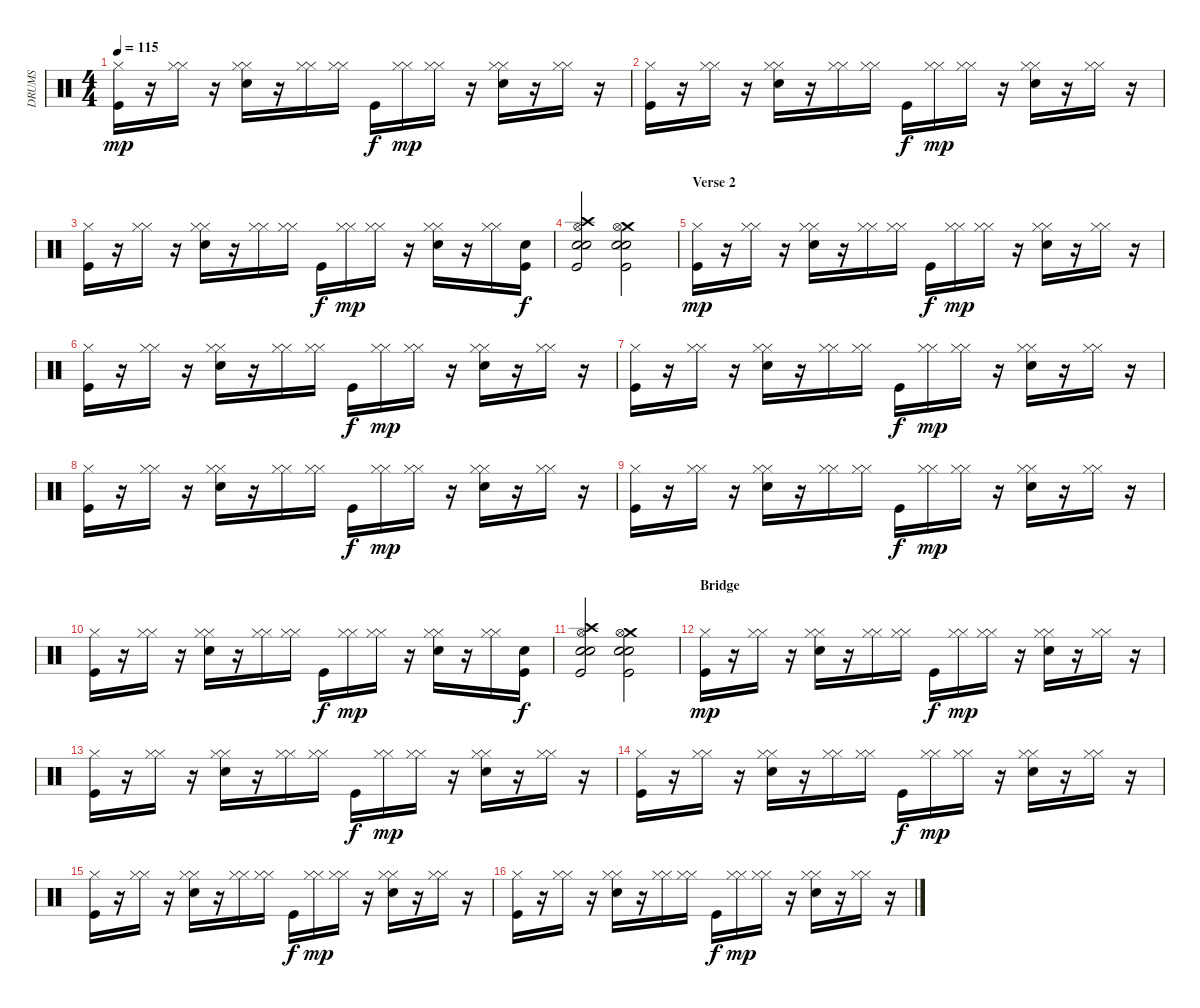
\track ("DRUMS" "DRUMS") {instrument percussion}
\staff {score}
\articulation defaults
\ts (4 4)
\tempo 115
\clef neutral
\ks c
("Kick (hit)" "Hi-Hat (closed)").16{dy mp} r.16 ("Hi-Hat (closed)" "Hi-Hat (closed)").16 r.16 ("Hi-Hat (closed)" "Snare (hit) 2" "Hi-Hat (closed)").16 r.16 ("Hi-Hat (closed)" "Hi-Hat (closed)").16 ("Hi-Hat (closed)" "Hi-Hat (closed)").16 "Kick (hit)".16{dy f} ("Hi-Hat (closed)" "Hi-Hat (closed)").16{dy mp} ("Hi-Hat (closed)" "Hi-Hat (closed)").16 r.16 ("Hi-Hat (closed)" "Snare (hit) 2" "Hi-Hat (closed)").16 r.16 ("Hi-Hat (closed)" "Hi-Hat (closed)").16 r.16 |
("Kick (hit)" "Hi-Hat (closed)").16 r.16 ("Hi-Hat (closed)" "Hi-Hat (closed)").16 r.16 ("Hi-Hat (closed)" "Snare (hit) 2" "Hi-Hat (closed)").16 r.16 ("Hi-Hat (closed)" "Hi-Hat (closed)").16 ("Hi-Hat (closed)" "Hi-Hat (closed)").16 "Kick (hit)".16{dy f} ("Hi-Hat (closed)" "Hi-Hat (closed)").16{dy mp} ("Hi-Hat (closed)" "Hi-Hat (closed)").16 r.16 ("Hi-Hat (closed)" "Snare (hit) 2" "Hi-Hat (closed)").16 r.16 ("Hi-Hat (closed)" "Hi-Hat (closed)").16 r.16 |
("Kick (hit)" "Hi-Hat (closed)").16 r.16 ("Hi-Hat (closed)" "Hi-Hat (closed)").16 r.16 ("Hi-Hat (closed)" "Snare (hit) 2" "Hi-Hat (closed)").16 r.16 ("Hi-Hat (closed)" "Hi-Hat (closed)").16 ("Hi-Hat (closed)" "Hi-Hat (closed)").16 "Kick (hit)".16{dy f} ("Hi-Hat (closed)" "Hi-Hat (closed)").16{dy mp} ("Hi-Hat (closed)" "Hi-Hat (closed)").16 r.16 ("Hi-Hat (closed)" "Snare (hit) 2" "Hi-Hat (closed)").16 r.16 ("Hi-Hat (closed)" "Hi-Hat (closed)").16 ("Snare (hit) 2" "Kick (hit)").16{dy f} |
("Crash high (hit)" "Hi-Hat (open)" "Snare (hit) 2" "Kick (hit)" "Electric Snare (hit)").2 ("Crash medium (hit)" "Hi-Hat (open)" "Snare (hit) 2" "Kick (hit)" "Electric Snare (hit)").2 |
\section ("" "Verse 2")
("Kick (hit)" "Hi-Hat (closed)").16{dy mp} r.16 ("Hi-Hat (closed)" "Hi-Hat (closed)").16 r.16 ("Hi-Hat (closed)" "Snare (hit) 2" "Hi-Hat (closed)").16 r.16 ("Hi-Hat (closed)" "Hi-Hat (closed)").16 ("Hi-Hat (closed)" "Hi-Hat (closed)").16 "Kick (hit)".16{dy f} ("Hi-Hat (closed)" "Hi-Hat (closed)").16{dy mp} ("Hi-Hat (closed)" "Hi-Hat (closed)").16 r.16 ("Hi-Hat (closed)" "Snare (hit) 2" "Hi-Hat (closed)").16 r.16 ("Hi-Hat (closed)" "Hi-Hat (closed)").16 r.16 |
("Kick (hit)" "Hi-Hat (closed)").16 r.16 ("Hi-Hat (closed)" "Hi-Hat (closed)").16 r.16 ("Hi-Hat (closed)" "Snare (hit) 2" "Hi-Hat (closed)").16 r.16 ("Hi-Hat (closed)" "Hi-Hat (closed)").16 ("Hi-Hat (closed)" "Hi-Hat (closed)").16 "Kick (hit)".16{dy f} ("Hi-Hat (closed)" "Hi-Hat (closed)").16{dy mp} ("Hi-Hat (closed)" "Hi-Hat (closed)").16 r.16 ("Hi-Hat (closed)" "Snare (hit) 2" "Hi-Hat (closed)").16 r.16 ("Hi-Hat (closed)" "Hi-Hat (closed)").16 r.16 |
("Kick (hit)" "Hi-Hat (closed)").16 r.16 ("Hi-Hat (closed)" "Hi-Hat (closed)").16 r.16 ("Hi-Hat (closed)" "Snare (hit) 2" "Hi-Hat (closed)").16 r.16 ("Hi-Hat (closed)" "Hi-Hat (closed)").16 ("Hi-Hat (closed)" "Hi-Hat (closed)").16 "Kick (hit)".16{dy f} ("Hi-Hat (closed)" "Hi-Hat (closed)").16{dy mp} ("Hi-Hat (closed)" "Hi-Hat (closed)").16 r.16 ("Hi-Hat (closed)" "Snare (hit) 2" "Hi-Hat (closed)").16 r.16 ("Hi-Hat (closed)" "Hi-Hat (closed)").16 r.16 |
("Kick (hit)" "Hi-Hat (closed)").16 r.16 ("Hi-Hat (closed)" "Hi-Hat (closed)").16 r.16 ("Hi-Hat (closed)" "Snare (hit) 2" "Hi-Hat (closed)").16 r.16 ("Hi-Hat (closed)" "Hi-Hat (closed)").16 ("Hi-Hat (closed)" "Hi-Hat (closed)").16 "Kick (hit)".16{dy f} ("Hi-Hat (closed)" "Hi-Hat (closed)").16{dy mp} ("Hi-Hat (closed)" "Hi-Hat (closed)").16 r.16 ("Hi-Hat (closed)" "Snare (hit) 2" "Hi-Hat (closed)").16 r.16 ("Hi-Hat (closed)" "Hi-Hat (closed)").16 r.16 |
("Kick (hit)" "Hi-Hat (closed)").16 r.16 ("Hi-Hat (closed)" "Hi-Hat (closed)").16 r.16 ("Hi-Hat (closed)" "Snare (hit) 2" "Hi-Hat (closed)").16 r.16 ("Hi-Hat (closed)" "Hi-Hat (closed)").16 ("Hi-Hat (closed)" "Hi-Hat (closed)").16 "Kick (hit)".16{dy f} ("Hi-Hat (closed)" "Hi-Hat (closed)").16{dy mp} ("Hi-Hat (closed)" "Hi-Hat (closed)").16 r.16 ("Hi-Hat (closed)" "Snare (hit) 2" "Hi-Hat (closed)").16 r.16 ("Hi-Hat (closed)" "Hi-Hat (closed)").16 r.16 |
("Kick (hit)" "Hi-Hat (closed)").16 r.16 ("Hi-Hat (closed)" "Hi-Hat (closed)").16 r.16 ("Hi-Hat (closed)" "Snare (hit) 2" "Hi-Hat (closed)").16 r.16 ("Hi-Hat (closed)" "Hi-Hat (closed)").16 ("Hi-Hat (closed)" "Hi-Hat (closed)").16 "Kick (hit)".16{dy f} ("Hi-Hat (closed)" "Hi-Hat (closed)").16{dy mp} ("Hi-Hat (closed)" "Hi-Hat (closed)").16 r.16 ("Hi-Hat (closed)" "Snare (hit) 2" "Hi-Hat (closed)").16 r.16 ("Hi-Hat (closed)" "Hi-Hat (closed)").16 ("Snare (hit) 2" "Kick (hit)").16{dy f} |
("Crash high (hit)" "Hi-Hat (open)" "Snare (hit) 2" "Kick (hit)" "Electric Snare (hit)").2 ("Crash medium (hit)" "Hi-Hat (open)" "Snare (hit) 2" "Kick (hit)" "Electric Snare (hit)").2 |
\section ("" "Bridge")
("Kick (hit)" "Hi-Hat (closed)").16{dy mp} r.16 ("Hi-Hat (closed)" "Hi-Hat (closed)").16 r.16 ("Hi-Hat (closed)" "Snare (hit) 2" "Hi-Hat (closed)").16 r.16 ("Hi-Hat (closed)" "Hi-Hat (closed)").16 ("Hi-Hat (closed)" "Hi-Hat (closed)").16 "Kick (hit)".16{dy f} ("Hi-Hat (closed)" "Hi-Hat (closed)").16{dy mp} ("Hi-Hat (closed)" "Hi-Hat (closed)").16 r.16 ("Hi-Hat (closed)" "Snare (hit) 2" "Hi-Hat (closed)").16 r.16 ("Hi-Hat (closed)" "Hi-Hat (closed)").16 r.16 |
("Kick (hit)" "Hi-Hat (closed)").16 r.16 ("Hi-Hat (closed)" "Hi-Hat (closed)").16 r.16 ("Hi-Hat (closed)" "Snare (hit) 2" "Hi-Hat (closed)").16 r.16 ("Hi-Hat (closed)" "Hi-Hat (closed)").16 ("Hi-Hat (closed)" "Hi-Hat (closed)").16 "Kick (hit)".16{dy f} ("Hi-Hat (closed)" "Hi-Hat (closed)").16{dy mp} ("Hi-Hat (closed)" "Hi-Hat (closed)").16 r.16 ("Hi-Hat (closed)" "Snare (hit) 2" "Hi-Hat (closed)").16 r.16 ("Hi-Hat (closed)" "Hi-Hat (closed)").16 r.16 |
("Kick (hit)" "Hi-Hat (closed)").16 r.16 ("Hi-Hat (closed)" "Hi-Hat (closed)").16 r.16 ("Hi-Hat (closed)" "Snare (hit) 2" "Hi-Hat (closed)").16 r.16 ("Hi-Hat (closed)" "Hi-Hat (closed)").16 ("Hi-Hat (closed)" "Hi-Hat (closed)").16 "Kick (hit)".16{dy f} ("Hi-Hat (closed)" "Hi-Hat (closed)").16{dy mp} ("Hi-Hat (closed)" "Hi-Hat (closed)").16 r.16 ("Hi-Hat (closed)" "Snare (hit) 2" "Hi-Hat (closed)").16 r.16 ("Hi-Hat (closed)" "Hi-Hat (closed)").16 r.16 |
("Kick (hit)" "Hi-Hat (closed)").16 r.16 ("Hi-Hat (closed)" "Hi-Hat (closed)").16 r.16 ("Hi-Hat (closed)" "Snare (hit) 2" "Hi-Hat (closed)").16 r.16 ("Hi-Hat (closed)" "Hi-Hat (closed)").16 ("Hi-Hat (closed)" "Hi-Hat (closed)").16 "Kick (hit)".16{dy f} ("Hi-Hat (closed)" "Hi-Hat (closed)").16{dy mp} ("Hi-Hat (closed)" "Hi-Hat (closed)").16 r.16 ("Hi-Hat (closed)" "Snare (hit) 2" "Hi-Hat (closed)").16 r.16 ("Hi-Hat (closed)" "Hi-Hat (closed)").16 r.16 |
("Kick (hit)" "Hi-Hat (closed)").16 r.16 ("Hi-Hat (closed)" "Hi-Hat (closed)").16 r.16 ("Hi-Hat (closed)" "Snare (hit) 2" "Hi-Hat (closed)").16 r.16 ("Hi-Hat (closed)" "Hi-Hat (closed)").16 ("Hi-Hat (closed)" "Hi-Hat (closed)").16 "Kick (hit)".16{dy f} ("Hi-Hat (closed)" "Hi-Hat (closed)").16{dy mp} ("Hi-Hat (closed)" "Hi-Hat (closed)").16 r.16 ("Hi-Hat (closed)" "Snare (hit) 2" "Hi-Hat (closed)").16 r.16 ("Hi-Hat (closed)" "Hi-Hat (closed)").16 r.16
